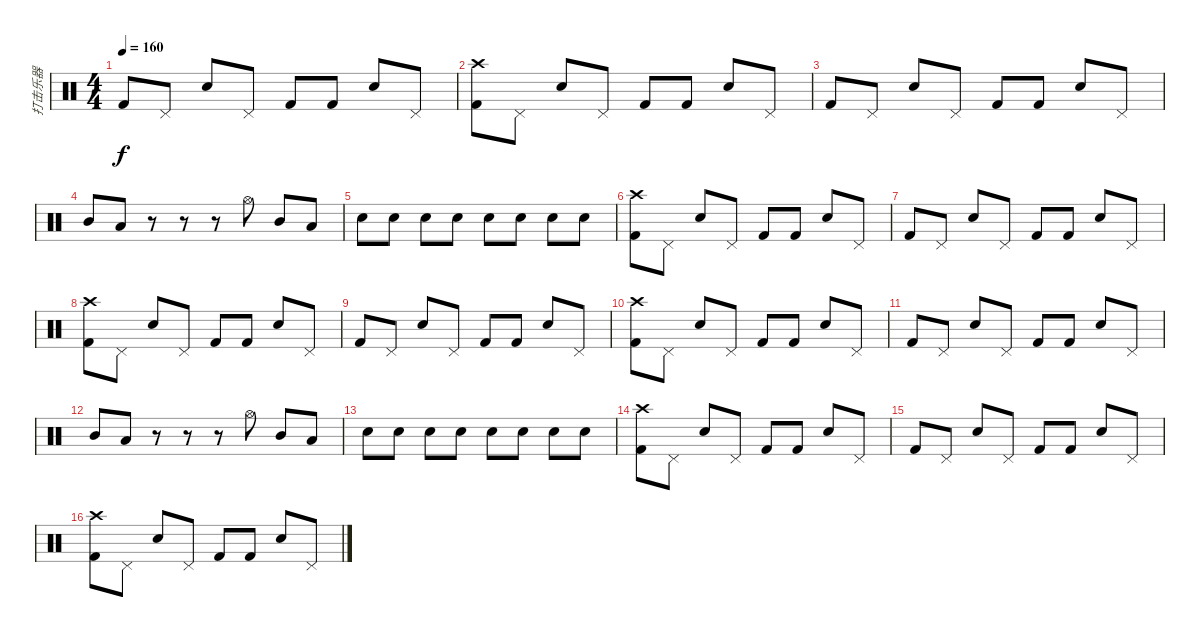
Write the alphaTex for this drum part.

\track ("打击乐器" "打击乐器") {instrument percussion}
\staff {score}
\articulation defaults
\ts (4 4)
\tempo 160
\clef neutral
\ks c "Kick (hit) 2".8{dy f} "Pedal Hi-Hat (hit)".8 "Snare (hit) 2".8 "Pedal Hi-Hat (hit)".8 "Kick (hit) 2".8 "Kick (hit) 2".8 "Snare (hit) 2".8 "Pedal Hi-Hat (hit)".8
|
("Crash high (hit)" "Kick (hit) 2").8 "Pedal Hi-Hat (hit)".8 "Snare (hit) 2".8 "Pedal Hi-Hat (hit)".8 "Kick (hit) 2".8 "Kick (hit) 2".8 "Snare (hit) 2".8 "Pedal Hi-Hat (hit)".8 |
"Kick (hit) 2".8 "Pedal Hi-Hat (hit)".8 "Snare (hit) 2".8 "Pedal Hi-Hat (hit)".8 "Kick (hit) 2".8 "Kick (hit) 2".8 "Snare (hit) 2".8 "Pedal Hi-Hat (hit)".8 |
"Mid Tom (hit)".8 "Low Tom (hit)".8 r.8 r.8 r.8 "Hi-Hat (open)".8 "Mid Tom (hit)".8 "Low Tom (hit)".8 |
"Snare (hit) 2".8 "Snare (hit) 2".8 "Snare (hit) 2".8 "Snare (hit) 2".8 "Snare (hit) 2".8 "Snare (hit) 2".8 "Snare (hit) 2".8 "Snare (hit) 2".8 |
("Crash high (hit)" "Kick (hit) 2").8 "Pedal Hi-Hat (hit)".8 "Snare (hit) 2".8 "Pedal Hi-Hat (hit)".8 "Kick (hit) 2".8 "Kick (hit) 2".8 "Snare (hit) 2".8 "Pedal Hi-Hat (hit)".8 |
"Kick (hit) 2".8 "Pedal Hi-Hat (hit)".8 "Snare (hit) 2".8 "Pedal Hi-Hat (hit)".8 "Kick (hit) 2".8 "Kick (hit) 2".8 "Snare (hit) 2".8 "Pedal Hi-Hat (hit)".8 |
("Crash high (hit)" "Kick (hit) 2").8 "Pedal Hi-Hat (hit)".8 "Snare (hit) 2".8 "Pedal Hi-Hat (hit)".8 "Kick (hit) 2".8 "Kick (hit) 2".8 "Snare (hit) 2".8 "Pedal Hi-Hat (hit)".8 |
"Kick (hit) 2".8 "Pedal Hi-Hat (hit)".8 "Snare (hit) 2".8 "Pedal Hi-Hat (hit)".8 "Kick (hit) 2".8 "Kick (hit) 2".8 "Snare (hit) 2".8 "Pedal Hi-Hat (hit)".8 |
("Crash high (hit)" "Kick (hit) 2").8 "Pedal Hi-Hat (hit)".8 "Snare (hit) 2".8 "Pedal Hi-Hat (hit)".8 "Kick (hit) 2".8 "Kick (hit) 2".8 "Snare (hit) 2".8 "Pedal Hi-Hat (hit)".8 |
"Kick (hit) 2".8 "Pedal Hi-Hat (hit)".8 "Snare (hit) 2".8 "Pedal Hi-Hat (hit)".8 "Kick (hit) 2".8 "Kick (hit) 2".8 "Snare (hit) 2".8 "Pedal Hi-Hat (hit)".8 |
"Mid Tom (hit)".8 "Low Tom (hit)".8 r.8 r.8 r.8 "Hi-Hat (open)".8 "Mid Tom (hit)".8 "Low Tom (hit)".8 |
"Snare (hit) 2".8 "Snare (hit) 2".8 "Snare (hit) 2".8 "Snare (hit) 2".8 "Snare (hit) 2".8 "Snare (hit) 2".8 "Snare (hit) 2".8 "Snare (hit) 2".8 |
("Crash high (hit)" "Kick (hit) 2").8 "Pedal Hi-Hat (hit)".8 "Snare (hit) 2".8 "Pedal Hi-Hat (hit)".8 "Kick (hit) 2".8 "Kick (hit) 2".8 "Snare (hit) 2".8 "Pedal Hi-Hat (hit)".8 |
"Kick (hit) 2".8 "Pedal Hi-Hat (hit)".8 "Snare (hit) 2".8 "Pedal Hi-Hat (hit)".8 "Kick (hit) 2".8 "Kick (hit) 2".8 "Snare (hit) 2".8 "Pedal Hi-Hat (hit)".8 |
("Crash high (hit)" "Kick (hit) 2").8 "Pedal Hi-Hat (hit)".8 "Snare (hit) 2".8 "Pedal Hi-Hat (hit)".8 "Kick (hit) 2".8 "Kick (hit) 2".8 "Snare (hit) 2".8 "Pedal Hi-Hat (hit)".8
